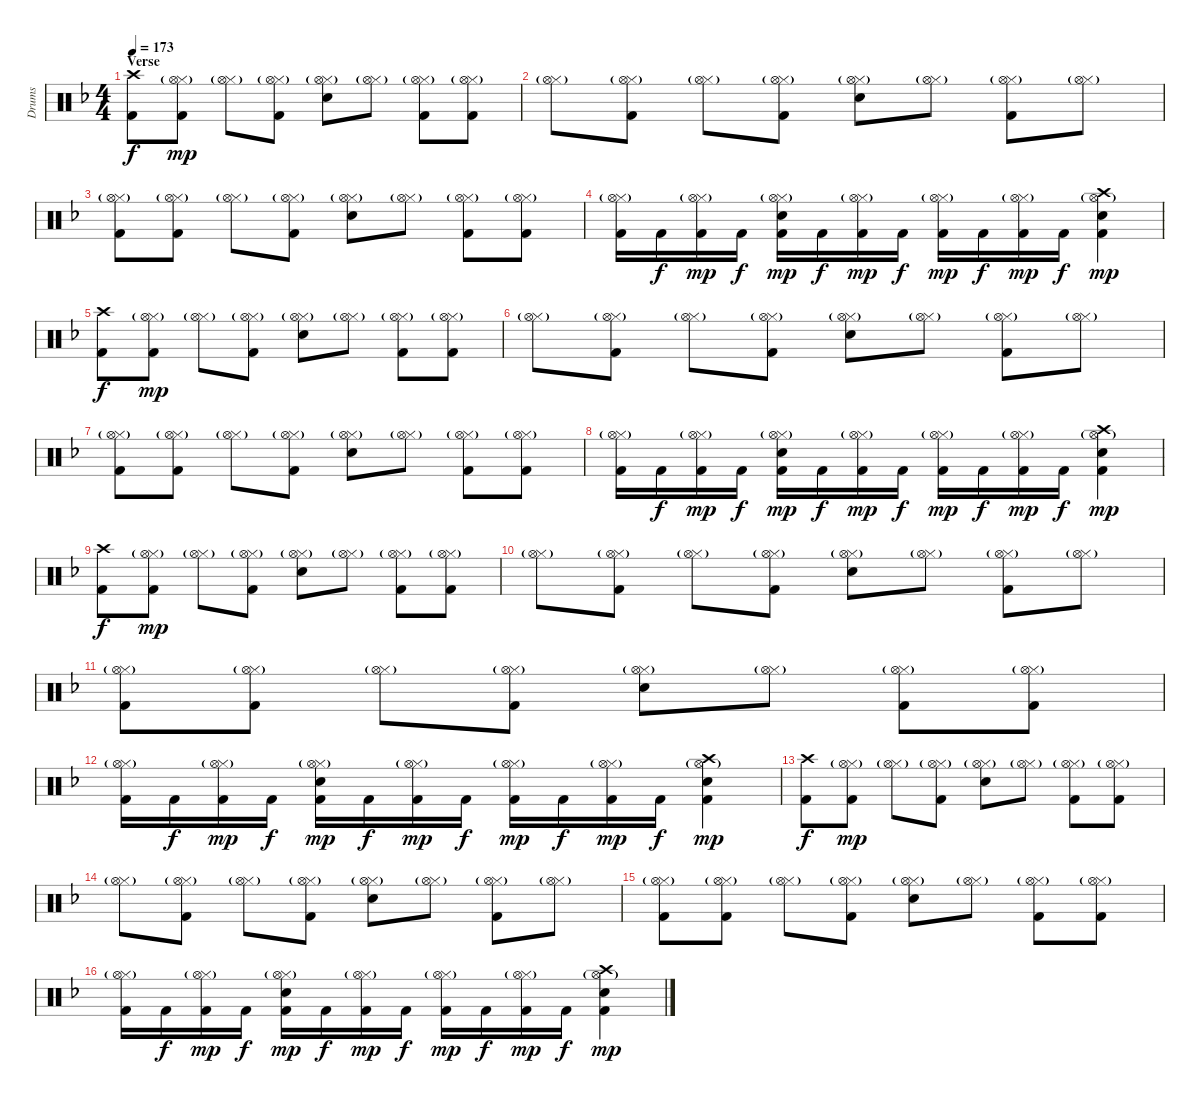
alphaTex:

\track ("Drums" "Drums") {instrument percussion}
\staff {score}
\articulation defaults
\ts (4 4)
\section ("" "Verse")
\tempo 173
\clef neutral
\ks dminor
("Crash high (hit)" "Kick (hit) 2").8{dy f} ("Hi-Hat (closed)"{g} "Hi-Hat (open)"{g} "Kick (hit) 2").8{dy mp} ("Hi-Hat (closed)"{g} "Hi-Hat (open)"{g}).8 ("Hi-Hat (closed)"{g} "Hi-Hat (open)"{g} "Kick (hit) 2").8 ("Hi-Hat (closed)"{g} "Hi-Hat (open)"{g} "Snare (hit) 2").8 ("Hi-Hat (closed)"{g} "Hi-Hat (open)"{g}).8 ("Hi-Hat (closed)"{g} "Hi-Hat (open)"{g} "Kick (hit) 2").8 ("Hi-Hat (closed)"{g} "Hi-Hat (open)"{g} "Kick (hit) 2").8 |
("Hi-Hat (closed)"{g} "Hi-Hat (open)"{g}).8 ("Hi-Hat (closed)"{g} "Hi-Hat (open)"{g} "Kick (hit) 2").8 ("Hi-Hat (closed)"{g} "Hi-Hat (open)"{g}).8 ("Hi-Hat (closed)"{g} "Hi-Hat (open)"{g} "Kick (hit) 2").8 ("Hi-Hat (closed)"{g} "Hi-Hat (open)"{g} "Snare (hit) 2").8 ("Hi-Hat (closed)"{g} "Hi-Hat (open)"{g}).8 ("Hi-Hat (closed)"{g} "Hi-Hat (open)"{g} "Kick (hit) 2").8 ("Hi-Hat (closed)"{g} "Hi-Hat (open)"{g}).8 |
("Hi-Hat (closed)"{g} "Hi-Hat (open)"{g} "Kick (hit) 2").8 ("Hi-Hat (closed)"{g} "Hi-Hat (open)"{g} "Kick (hit) 2").8 ("Hi-Hat (closed)"{g} "Hi-Hat (open)"{g}).8 ("Hi-Hat (closed)"{g} "Hi-Hat (open)"{g} "Kick (hit) 2").8 ("Hi-Hat (closed)"{g} "Hi-Hat (open)"{g} "Snare (hit) 2").8 ("Hi-Hat (closed)"{g} "Hi-Hat (open)"{g}).8 ("Hi-Hat (closed)"{g} "Hi-Hat (open)"{g} "Kick (hit) 2").8 ("Hi-Hat (closed)"{g} "Hi-Hat (open)"{g} "Kick (hit) 2").8 |
("Hi-Hat (closed)"{g} "Hi-Hat (open)"{g} "Kick (hit) 2").16 "Kick (hit) 2".16{dy f} ("Hi-Hat (closed)"{g} "Hi-Hat (open)"{g} "Kick (hit) 2").16{dy mp} "Kick (hit) 2".16{dy f} ("Hi-Hat (closed)"{g} "Hi-Hat (open)"{g} "Snare (hit) 2" "Kick (hit) 2").16{dy mp} "Kick (hit) 2".16{dy f} ("Hi-Hat (closed)"{g} "Hi-Hat (open)"{g} "Kick (hit) 2").16{dy mp} "Kick (hit) 2".16{dy f} ("Hi-Hat (closed)"{g} "Hi-Hat (open)"{g} "Kick (hit) 2").16{dy mp} "Kick (hit) 2".16{dy f} ("Hi-Hat (closed)"{g} "Hi-Hat (open)"{g} "Kick (hit) 2").16{dy mp} "Kick (hit) 2".16{dy f} ("Crash high (hit)" "Hi-Hat (open)"{g} "Snare (hit) 2" "Kick (hit) 2").4{dy mp} |
("Crash high (hit)" "Kick (hit) 2").8{dy f} ("Hi-Hat (closed)"{g} "Hi-Hat (open)"{g} "Kick (hit) 2").8{dy mp} ("Hi-Hat (closed)"{g} "Hi-Hat (open)"{g}).8 ("Hi-Hat (closed)"{g} "Hi-Hat (open)"{g} "Kick (hit) 2").8 ("Hi-Hat (closed)"{g} "Hi-Hat (open)"{g} "Snare (hit) 2").8 ("Hi-Hat (closed)"{g} "Hi-Hat (open)"{g}).8 ("Hi-Hat (closed)"{g} "Hi-Hat (open)"{g} "Kick (hit) 2").8 ("Hi-Hat (closed)"{g} "Hi-Hat (open)"{g} "Kick (hit) 2").8 |
("Hi-Hat (closed)"{g} "Hi-Hat (open)"{g}).8 ("Hi-Hat (closed)"{g} "Hi-Hat (open)"{g} "Kick (hit) 2").8 ("Hi-Hat (closed)"{g} "Hi-Hat (open)"{g}).8 ("Hi-Hat (closed)"{g} "Hi-Hat (open)"{g} "Kick (hit) 2").8 ("Hi-Hat (closed)"{g} "Hi-Hat (open)"{g} "Snare (hit) 2").8 ("Hi-Hat (closed)"{g} "Hi-Hat (open)"{g}).8 ("Hi-Hat (closed)"{g} "Hi-Hat (open)"{g} "Kick (hit) 2").8 ("Hi-Hat (closed)"{g} "Hi-Hat (open)"{g}).8 |
("Hi-Hat (closed)"{g} "Hi-Hat (open)"{g} "Kick (hit) 2").8 ("Hi-Hat (closed)"{g} "Hi-Hat (open)"{g} "Kick (hit) 2").8 ("Hi-Hat (closed)"{g} "Hi-Hat (open)"{g}).8 ("Hi-Hat (closed)"{g} "Hi-Hat (open)"{g} "Kick (hit) 2").8 ("Hi-Hat (closed)"{g} "Hi-Hat (open)"{g} "Snare (hit) 2").8 ("Hi-Hat (closed)"{g} "Hi-Hat (open)"{g}).8 ("Hi-Hat (closed)"{g} "Hi-Hat (open)"{g} "Kick (hit) 2").8 ("Hi-Hat (closed)"{g} "Hi-Hat (open)"{g} "Kick (hit) 2").8 |
("Hi-Hat (closed)"{g} "Hi-Hat (open)"{g} "Kick (hit) 2").16 "Kick (hit) 2".16{dy f} ("Hi-Hat (closed)"{g} "Hi-Hat (open)"{g} "Kick (hit) 2").16{dy mp} "Kick (hit) 2".16{dy f} ("Hi-Hat (closed)"{g} "Hi-Hat (open)"{g} "Snare (hit) 2" "Kick (hit) 2").16{dy mp} "Kick (hit) 2".16{dy f} ("Hi-Hat (closed)"{g} "Hi-Hat (open)"{g} "Kick (hit) 2").16{dy mp} "Kick (hit) 2".16{dy f} ("Hi-Hat (closed)"{g} "Hi-Hat (open)"{g} "Kick (hit) 2").16{dy mp} "Kick (hit) 2".16{dy f} ("Hi-Hat (closed)"{g} "Hi-Hat (open)"{g} "Kick (hit) 2").16{dy mp} "Kick (hit) 2".16{dy f} ("Crash high (hit)" "Hi-Hat (open)"{g} "Snare (hit) 2" "Kick (hit) 2").4{dy mp} |
("Crash high (hit)" "Kick (hit) 2").8{dy f} ("Hi-Hat (closed)"{g} "Hi-Hat (open)"{g} "Kick (hit) 2").8{dy mp} ("Hi-Hat (closed)"{g} "Hi-Hat (open)"{g}).8 ("Hi-Hat (closed)"{g} "Hi-Hat (open)"{g} "Kick (hit) 2").8 ("Hi-Hat (closed)"{g} "Hi-Hat (open)"{g} "Snare (hit) 2").8 ("Hi-Hat (closed)"{g} "Hi-Hat (open)"{g}).8 ("Hi-Hat (closed)"{g} "Hi-Hat (open)"{g} "Kick (hit) 2").8 ("Hi-Hat (closed)"{g} "Hi-Hat (open)"{g} "Kick (hit) 2").8 |
("Hi-Hat (closed)"{g} "Hi-Hat (open)"{g}).8 ("Hi-Hat (closed)"{g} "Hi-Hat (open)"{g} "Kick (hit) 2").8 ("Hi-Hat (closed)"{g} "Hi-Hat (open)"{g}).8 ("Hi-Hat (closed)"{g} "Hi-Hat (open)"{g} "Kick (hit) 2").8 ("Hi-Hat (closed)"{g} "Hi-Hat (open)"{g} "Snare (hit) 2").8 ("Hi-Hat (closed)"{g} "Hi-Hat (open)"{g}).8 ("Hi-Hat (closed)"{g} "Hi-Hat (open)"{g} "Kick (hit) 2").8 ("Hi-Hat (closed)"{g} "Hi-Hat (open)"{g}).8 |
("Hi-Hat (closed)"{g} "Hi-Hat (open)"{g} "Kick (hit) 2").8 ("Hi-Hat (closed)"{g} "Hi-Hat (open)"{g} "Kick (hit) 2").8 ("Hi-Hat (closed)"{g} "Hi-Hat (open)"{g}).8 ("Hi-Hat (closed)"{g} "Hi-Hat (open)"{g} "Kick (hit) 2").8 ("Hi-Hat (closed)"{g} "Hi-Hat (open)"{g} "Snare (hit) 2").8 ("Hi-Hat (closed)"{g} "Hi-Hat (open)"{g}).8 ("Hi-Hat (closed)"{g} "Hi-Hat (open)"{g} "Kick (hit) 2").8 ("Hi-Hat (closed)"{g} "Hi-Hat (open)"{g} "Kick (hit) 2").8 |
("Hi-Hat (closed)"{g} "Hi-Hat (open)"{g} "Kick (hit) 2").16 "Kick (hit) 2".16{dy f} ("Hi-Hat (closed)"{g} "Hi-Hat (open)"{g} "Kick (hit) 2").16{dy mp} "Kick (hit) 2".16{dy f} ("Hi-Hat (closed)"{g} "Hi-Hat (open)"{g} "Snare (hit) 2" "Kick (hit) 2").16{dy mp} "Kick (hit) 2".16{dy f} ("Hi-Hat (closed)"{g} "Hi-Hat (open)"{g} "Kick (hit) 2").16{dy mp} "Kick (hit) 2".16{dy f} ("Hi-Hat (closed)"{g} "Hi-Hat (open)"{g} "Kick (hit) 2").16{dy mp} "Kick (hit) 2".16{dy f} ("Hi-Hat (closed)"{g} "Hi-Hat (open)"{g} "Kick (hit) 2").16{dy mp} "Kick (hit) 2".16{dy f} ("Crash high (hit)" "Hi-Hat (open)"{g} "Snare (hit) 2" "Kick (hit) 2").4{dy mp} |
("Crash high (hit)" "Kick (hit) 2").8{dy f} ("Hi-Hat (closed)"{g} "Hi-Hat (open)"{g} "Kick (hit) 2").8{dy mp} ("Hi-Hat (closed)"{g} "Hi-Hat (open)"{g}).8 ("Hi-Hat (closed)"{g} "Hi-Hat (open)"{g} "Kick (hit) 2").8 ("Hi-Hat (closed)"{g} "Hi-Hat (open)"{g} "Snare (hit) 2").8 ("Hi-Hat (closed)"{g} "Hi-Hat (open)"{g}).8 ("Hi-Hat (closed)"{g} "Hi-Hat (open)"{g} "Kick (hit) 2").8 ("Hi-Hat (closed)"{g} "Hi-Hat (open)"{g} "Kick (hit) 2").8 |
("Hi-Hat (closed)"{g} "Hi-Hat (open)"{g}).8 ("Hi-Hat (closed)"{g} "Hi-Hat (open)"{g} "Kick (hit) 2").8 ("Hi-Hat (closed)"{g} "Hi-Hat (open)"{g}).8 ("Hi-Hat (closed)"{g} "Hi-Hat (open)"{g} "Kick (hit) 2").8 ("Hi-Hat (closed)"{g} "Hi-Hat (open)"{g} "Snare (hit) 2").8 ("Hi-Hat (closed)"{g} "Hi-Hat (open)"{g}).8 ("Hi-Hat (closed)"{g} "Hi-Hat (open)"{g} "Kick (hit) 2").8 ("Hi-Hat (closed)"{g} "Hi-Hat (open)"{g}).8 |
("Hi-Hat (closed)"{g} "Hi-Hat (open)"{g} "Kick (hit) 2").8 ("Hi-Hat (closed)"{g} "Hi-Hat (open)"{g} "Kick (hit) 2").8 ("Hi-Hat (closed)"{g} "Hi-Hat (open)"{g}).8 ("Hi-Hat (closed)"{g} "Hi-Hat (open)"{g} "Kick (hit) 2").8 ("Hi-Hat (closed)"{g} "Hi-Hat (open)"{g} "Snare (hit) 2").8 ("Hi-Hat (closed)"{g} "Hi-Hat (open)"{g}).8 ("Hi-Hat (closed)"{g} "Hi-Hat (open)"{g} "Kick (hit) 2").8 ("Hi-Hat (closed)"{g} "Hi-Hat (open)"{g} "Kick (hit) 2").8 |
("Hi-Hat (closed)"{g} "Hi-Hat (open)"{g} "Kick (hit) 2").16 "Kick (hit) 2".16{dy f} ("Hi-Hat (closed)"{g} "Hi-Hat (open)"{g} "Kick (hit) 2").16{dy mp} "Kick (hit) 2".16{dy f} ("Hi-Hat (closed)"{g} "Hi-Hat (open)"{g} "Snare (hit) 2" "Kick (hit) 2").16{dy mp} "Kick (hit) 2".16{dy f} ("Hi-Hat (closed)"{g} "Hi-Hat (open)"{g} "Kick (hit) 2").16{dy mp} "Kick (hit) 2".16{dy f} ("Hi-Hat (closed)"{g} "Hi-Hat (open)"{g} "Kick (hit) 2").16{dy mp} "Kick (hit) 2".16{dy f} ("Hi-Hat (closed)"{g} "Hi-Hat (open)"{g} "Kick (hit) 2").16{dy mp} "Kick (hit) 2".16{dy f} ("Crash high (hit)" "Hi-Hat (open)"{g} "Snare (hit) 2" "Kick (hit) 2").4{dy mp}
